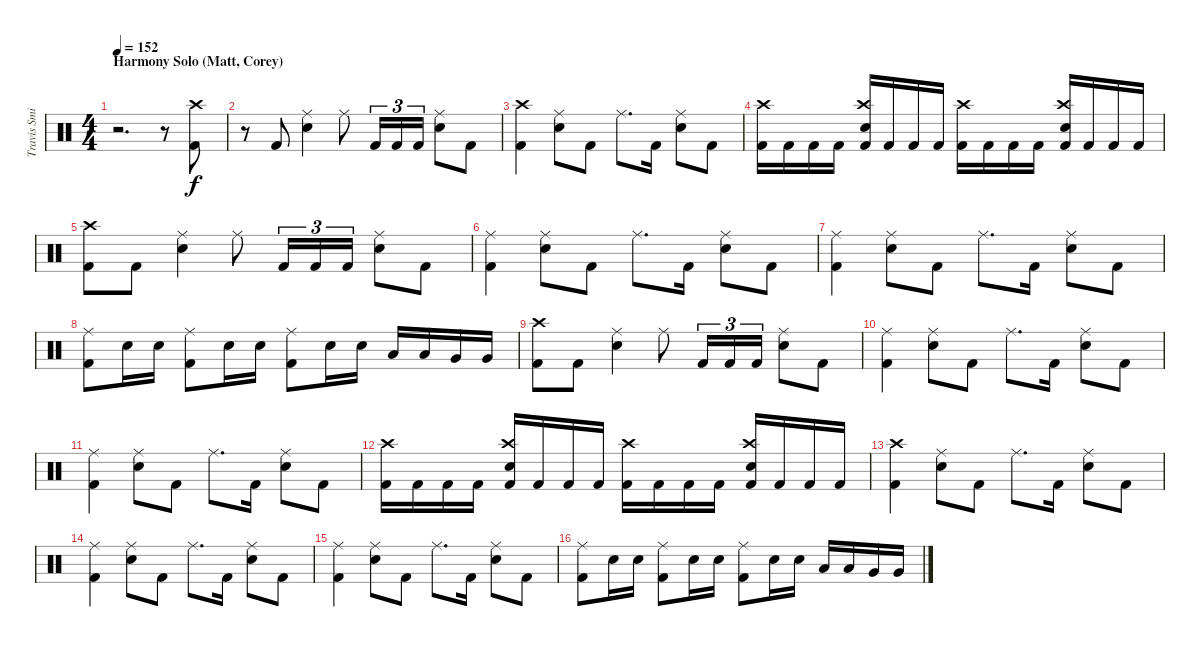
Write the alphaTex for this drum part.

\track ("Travis Smith" "Travis Smi") {instrument percussion}
\staff {score}
\articulation defaults
\ts (4 4)
\section ("" "Harmony Solo (Matt, Corey)")
\tempo 152
\clef neutral
\ks c
r.2{d dy f} r.8 ("Kick (hit) 2" "Crash high (hit)").8 |
r.8 "Kick (hit) 2".8 ("Snare (hit) 2" "Ride (middle)").4 "Ride (middle)".8 "Kick (hit) 2".16{tu (3 2)} "Kick (hit) 2".16{tu (3 2)} "Kick (hit) 2".16{tu (3 2)} ("Snare (hit) 2" "Ride (middle)").8 "Kick (hit) 2".8 |
("Kick (hit) 2" "Crash high (hit)").4 ("Snare (hit) 2" "Ride (middle)").8 "Kick (hit) 2".8 "Ride (middle)".8{d} "Kick (hit) 2".16 ("Snare (hit) 2" "Ride (middle)").8 "Kick (hit) 2".8 |
("Kick (hit) 2" "Crash high (hit)").16 "Kick (hit) 2".16 "Kick (hit) 2".16 "Kick (hit) 2".16 ("Kick (hit) 2" "Crash high (hit)" "Snare (hit) 2").16 "Kick (hit) 2".16 "Kick (hit) 2".16 "Kick (hit) 2".16 ("Kick (hit) 2" "Crash high (hit)").16 "Kick (hit) 2".16 "Kick (hit) 2".16 "Kick (hit) 2".16 ("Kick (hit) 2" "Crash high (hit)" "Snare (hit) 2").16 "Kick (hit) 2".16 "Kick (hit) 2".16 "Kick (hit) 2".16 |
("Kick (hit) 2" "Crash high (hit)").8 "Kick (hit) 2".8 ("Snare (hit) 2" "Ride (middle)").4 "Ride (middle)".8 "Kick (hit) 2".16{tu (3 2)} "Kick (hit) 2".16{tu (3 2)} "Kick (hit) 2".16{tu (3 2)} ("Snare (hit) 2" "Ride (middle)").8 "Kick (hit) 2".8 |
("Kick (hit) 2" "Ride (middle)").4 ("Snare (hit) 2" "Ride (middle)").8 "Kick (hit) 2".8 "Ride (middle)".8{d} "Kick (hit) 2".16 ("Snare (hit) 2" "Ride (middle)").8 "Kick (hit) 2".8 |
("Kick (hit) 2" "Ride (middle)").4 ("Snare (hit) 2" "Ride (middle)").8 "Kick (hit) 2".8 "Ride (middle)".8{d} "Kick (hit) 2".16 ("Snare (hit) 2" "Ride (middle)").8 "Kick (hit) 2".8 |
("Kick (hit) 2" "Ride (middle)").8 "Snare (hit) 2".16 "Snare (hit) 2".16 ("Kick (hit) 2" "Ride (middle)").8 "Snare (hit) 2".16 "Snare (hit) 2".16 ("Kick (hit) 2" "Ride (middle)").8 "Snare (hit) 2".16 "Snare (hit) 2".16 "Low Tom (hit)".16 "Low Tom (hit)".16 "Very Low Tom (hit)".16 "Very Low Tom (hit)".16 |
("Kick (hit) 2" "Crash high (hit)").8 "Kick (hit) 2".8 ("Snare (hit) 2" "Ride (middle)").4 "Ride (middle)".8 "Kick (hit) 2".16{tu (3 2)} "Kick (hit) 2".16{tu (3 2)} "Kick (hit) 2".16{tu (3 2)} ("Snare (hit) 2" "Ride (middle)").8 "Kick (hit) 2".8 |
("Kick (hit) 2" "Ride (middle)").4 ("Snare (hit) 2" "Ride (middle)").8 "Kick (hit) 2".8 "Ride (middle)".8{d} "Kick (hit) 2".16 ("Snare (hit) 2" "Ride (middle)").8 "Kick (hit) 2".8 |
("Kick (hit) 2" "Ride (middle)").4 ("Snare (hit) 2" "Ride (middle)").8 "Kick (hit) 2".8 "Ride (middle)".8{d} "Kick (hit) 2".16 ("Snare (hit) 2" "Ride (middle)").8 "Kick (hit) 2".8 |
("Kick (hit) 2" "Crash high (hit)").16 "Kick (hit) 2".16 "Kick (hit) 2".16 "Kick (hit) 2".16 ("Kick (hit) 2" "Crash high (hit)" "Snare (hit) 2").16 "Kick (hit) 2".16 "Kick (hit) 2".16 "Kick (hit) 2".16 ("Kick (hit) 2" "Crash high (hit)").16 "Kick (hit) 2".16 "Kick (hit) 2".16 "Kick (hit) 2".16 ("Kick (hit) 2" "Crash high (hit)" "Snare (hit) 2").16 "Kick (hit) 2".16 "Kick (hit) 2".16 "Kick (hit) 2".16 |
("Kick (hit) 2" "Crash high (hit)").4 ("Snare (hit) 2" "Ride (middle)").8 "Kick (hit) 2".8 "Ride (middle)".8{d} "Kick (hit) 2".16 ("Snare (hit) 2" "Ride (middle)").8 "Kick (hit) 2".8 |
("Kick (hit) 2" "Ride (middle)").4 ("Snare (hit) 2" "Ride (middle)").8 "Kick (hit) 2".8 "Ride (middle)".8{d} "Kick (hit) 2".16 ("Snare (hit) 2" "Ride (middle)").8 "Kick (hit) 2".8 |
("Kick (hit) 2" "Ride (middle)").4 ("Snare (hit) 2" "Ride (middle)").8 "Kick (hit) 2".8 "Ride (middle)".8{d} "Kick (hit) 2".16 ("Snare (hit) 2" "Ride (middle)").8 "Kick (hit) 2".8 |
("Kick (hit) 2" "Ride (middle)").8 "Snare (hit) 2".16 "Snare (hit) 2".16 ("Kick (hit) 2" "Ride (middle)").8 "Snare (hit) 2".16 "Snare (hit) 2".16 ("Kick (hit) 2" "Ride (middle)").8 "Snare (hit) 2".16 "Snare (hit) 2".16 "Low Tom (hit)".16 "Low Tom (hit)".16 "Very Low Tom (hit)".16 "Very Low Tom (hit)".16
